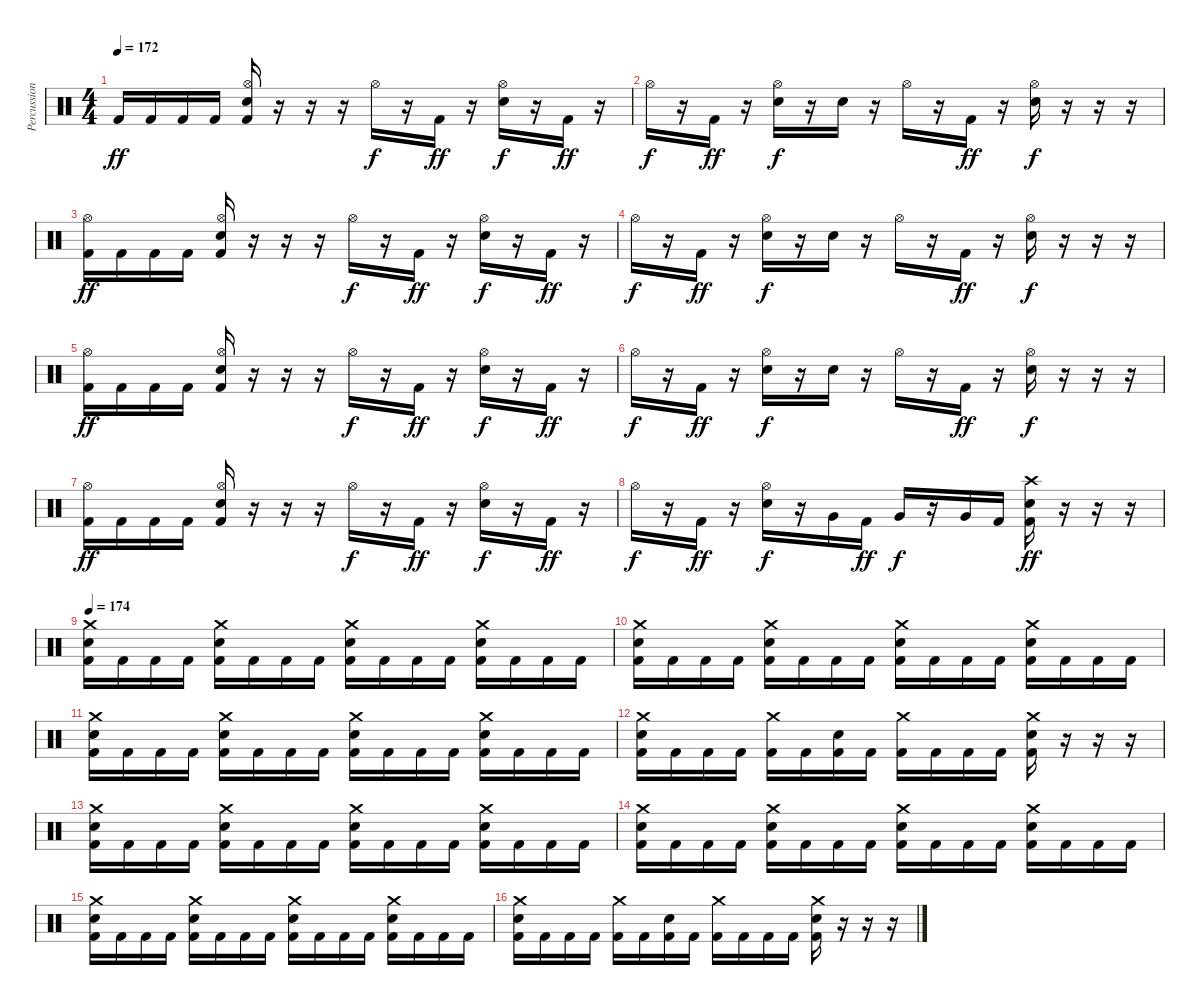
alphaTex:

\track ("Percussion" "Percussion") {instrument percussion}
\staff {score}
\articulation defaults
\ts (4 4)
\tempo 172
\clef neutral
\ks c "Kick (hit) 2".16{dy ff} "Kick (hit) 2".16 "Kick (hit) 2".16 "Kick (hit) 2".16
("Hi-Hat (open)" "Electric Snare (hit)" "Kick (hit) 2").16 r.16 r.16 r.16 "Hi-Hat (open)".16{dy f} r.16 "Kick (hit) 2".16{dy ff} r.16 ("Hi-Hat (open)" "Electric Snare (hit)").16{dy f} r.16 "Kick (hit) 2".16{dy ff} r.16 |
"Hi-Hat (open)".16{dy f} r.16 "Kick (hit) 2".16{dy ff} r.16 ("Hi-Hat (open)" "Electric Snare (hit)").16{dy f} r.16 "Electric Snare (hit)".16 r.16 "Hi-Hat (open)".16 r.16 "Kick (hit) 2".16{dy ff} r.16 ("Hi-Hat (open)" "Electric Snare (hit)").16{dy f} r.16 r.16 r.16 |
("Hi-Hat (open)" "Kick (hit) 2").16{dy ff} "Kick (hit) 2".16 "Kick (hit) 2".16 "Kick (hit) 2".16 ("Hi-Hat (open)" "Electric Snare (hit)" "Kick (hit) 2").16 r.16 r.16 r.16 "Hi-Hat (open)".16{dy f} r.16 "Kick (hit) 2".16{dy ff} r.16 ("Hi-Hat (open)" "Electric Snare (hit)").16{dy f} r.16 "Kick (hit) 2".16{dy ff} r.16 |
"Hi-Hat (open)".16{dy f} r.16 "Kick (hit) 2".16{dy ff} r.16 ("Hi-Hat (open)" "Electric Snare (hit)").16{dy f} r.16 "Electric Snare (hit)".16 r.16 "Hi-Hat (open)".16 r.16 "Kick (hit) 2".16{dy ff} r.16 ("Hi-Hat (open)" "Electric Snare (hit)").16{dy f} r.16 r.16 r.16 |
("Hi-Hat (open)" "Kick (hit) 2").16{dy ff} "Kick (hit) 2".16 "Kick (hit) 2".16 "Kick (hit) 2".16 ("Hi-Hat (open)" "Electric Snare (hit)" "Kick (hit) 2").16 r.16 r.16 r.16 "Hi-Hat (open)".16{dy f} r.16 "Kick (hit) 2".16{dy ff} r.16 ("Hi-Hat (open)" "Electric Snare (hit)").16{dy f} r.16 "Kick (hit) 2".16{dy ff} r.16 |
"Hi-Hat (open)".16{dy f} r.16 "Kick (hit) 2".16{dy ff} r.16 ("Hi-Hat (open)" "Electric Snare (hit)").16{dy f} r.16 "Electric Snare (hit)".16 r.16 "Hi-Hat (open)".16 r.16 "Kick (hit) 2".16{dy ff} r.16 ("Hi-Hat (open)" "Electric Snare (hit)").16{dy f} r.16 r.16 r.16 |
("Hi-Hat (open)" "Kick (hit) 2").16{dy ff} "Kick (hit) 2".16 "Kick (hit) 2".16 "Kick (hit) 2".16 ("Hi-Hat (open)" "Electric Snare (hit)" "Kick (hit) 2").16 r.16 r.16 r.16 "Hi-Hat (open)".16{dy f} r.16 "Kick (hit) 2".16{dy ff} r.16 ("Hi-Hat (open)" "Electric Snare (hit)").16{dy f} r.16 "Kick (hit) 2".16{dy ff} r.16 |
"Hi-Hat (open)".16{dy f} r.16 "Kick (hit) 2".16{dy ff} r.16 ("Hi-Hat (open)" "Electric Snare (hit)").16{dy f} r.16 "Very Low Tom (hit)".16 "Kick (hit) 2".16{dy ff} "Very Low Tom (hit)".16{dy f} r.16 "Very Low Tom (hit)".16 "Kick (hit) 2".16 ("Crash high (hit)" "Electric Snare (hit)" "Kick (hit) 2").16{dy ff} r.16 r.16 r.16 |
\tempo 174
("Crash medium (hit)" "Electric Snare (hit)" "Kick (hit) 2").16 "Kick (hit) 2".16 "Kick (hit) 2".16 "Kick (hit) 2".16 ("Crash medium (hit)" "Electric Snare (hit)" "Kick (hit) 2").16 "Kick (hit) 2".16 "Kick (hit) 2".16 "Kick (hit) 2".16 ("Crash medium (hit)" "Electric Snare (hit)" "Kick (hit) 2").16 "Kick (hit) 2".16 "Kick (hit) 2".16 "Kick (hit) 2".16 ("Crash medium (hit)" "Electric Snare (hit)" "Kick (hit) 2").16 "Kick (hit) 2".16 "Kick (hit) 2".16 "Kick (hit) 2".16 |
("Crash medium (hit)" "Electric Snare (hit)" "Kick (hit) 2").16 "Kick (hit) 2".16 "Kick (hit) 2".16 "Kick (hit) 2".16 ("Crash medium (hit)" "Electric Snare (hit)" "Kick (hit) 2").16 "Kick (hit) 2".16 "Kick (hit) 2".16 "Kick (hit) 2".16 ("Crash medium (hit)" "Electric Snare (hit)" "Kick (hit) 2").16 "Kick (hit) 2".16 "Kick (hit) 2".16 "Kick (hit) 2".16 ("Crash medium (hit)" "Electric Snare (hit)" "Kick (hit) 2").16 "Kick (hit) 2".16 "Kick (hit) 2".16 "Kick (hit) 2".16 |
("Crash medium (hit)" "Electric Snare (hit)" "Kick (hit) 2").16 "Kick (hit) 2".16 "Kick (hit) 2".16 "Kick (hit) 2".16 ("Crash medium (hit)" "Electric Snare (hit)" "Kick (hit) 2").16 "Kick (hit) 2".16 "Kick (hit) 2".16 "Kick (hit) 2".16 ("Crash medium (hit)" "Electric Snare (hit)" "Kick (hit) 2").16 "Kick (hit) 2".16 "Kick (hit) 2".16 "Kick (hit) 2".16 ("Crash medium (hit)" "Electric Snare (hit)" "Kick (hit) 2").16 "Kick (hit) 2".16 "Kick (hit) 2".16 "Kick (hit) 2".16 |
("Crash medium (hit)" "Electric Snare (hit)" "Kick (hit) 2").16 "Kick (hit) 2".16 "Kick (hit) 2".16 "Kick (hit) 2".16 ("Crash medium (hit)" "Kick (hit) 2").16 "Kick (hit) 2".16 ("Electric Snare (hit)" "Kick (hit) 2").16 "Kick (hit) 2".16 ("Crash medium (hit)" "Kick (hit) 2").16 "Kick (hit) 2".16 "Kick (hit) 2".16 "Kick (hit) 2".16 ("Crash medium (hit)" "Electric Snare (hit)" "Kick (hit) 2").16 r.16 r.16 r.16 |
("Crash medium (hit)" "Electric Snare (hit)" "Kick (hit) 2").16 "Kick (hit) 2".16 "Kick (hit) 2".16 "Kick (hit) 2".16 ("Crash medium (hit)" "Electric Snare (hit)" "Kick (hit) 2").16 "Kick (hit) 2".16 "Kick (hit) 2".16 "Kick (hit) 2".16 ("Crash medium (hit)" "Electric Snare (hit)" "Kick (hit) 2").16 "Kick (hit) 2".16 "Kick (hit) 2".16 "Kick (hit) 2".16 ("Crash medium (hit)" "Electric Snare (hit)" "Kick (hit) 2").16 "Kick (hit) 2".16 "Kick (hit) 2".16 "Kick (hit) 2".16 |
("Crash medium (hit)" "Electric Snare (hit)" "Kick (hit) 2").16 "Kick (hit) 2".16 "Kick (hit) 2".16 "Kick (hit) 2".16 ("Crash medium (hit)" "Electric Snare (hit)" "Kick (hit) 2").16 "Kick (hit) 2".16 "Kick (hit) 2".16 "Kick (hit) 2".16 ("Crash medium (hit)" "Electric Snare (hit)" "Kick (hit) 2").16 "Kick (hit) 2".16 "Kick (hit) 2".16 "Kick (hit) 2".16 ("Crash medium (hit)" "Electric Snare (hit)" "Kick (hit) 2").16 "Kick (hit) 2".16 "Kick (hit) 2".16 "Kick (hit) 2".16 |
("Crash medium (hit)" "Electric Snare (hit)" "Kick (hit) 2").16 "Kick (hit) 2".16 "Kick (hit) 2".16 "Kick (hit) 2".16 ("Crash medium (hit)" "Electric Snare (hit)" "Kick (hit) 2").16 "Kick (hit) 2".16 "Kick (hit) 2".16 "Kick (hit) 2".16 ("Crash medium (hit)" "Electric Snare (hit)" "Kick (hit) 2").16 "Kick (hit) 2".16 "Kick (hit) 2".16 "Kick (hit) 2".16 ("Crash medium (hit)" "Electric Snare (hit)" "Kick (hit) 2").16 "Kick (hit) 2".16 "Kick (hit) 2".16 "Kick (hit) 2".16 |
("Crash medium (hit)" "Electric Snare (hit)" "Kick (hit) 2").16 "Kick (hit) 2".16 "Kick (hit) 2".16 "Kick (hit) 2".16 ("Crash medium (hit)" "Kick (hit) 2").16 "Kick (hit) 2".16 ("Electric Snare (hit)" "Kick (hit) 2").16 "Kick (hit) 2".16 ("Crash medium (hit)" "Kick (hit) 2").16 "Kick (hit) 2".16 "Kick (hit) 2".16 "Kick (hit) 2".16 ("Crash medium (hit)" "Electric Snare (hit)" "Kick (hit) 2").16 r.16 r.16 r.16
